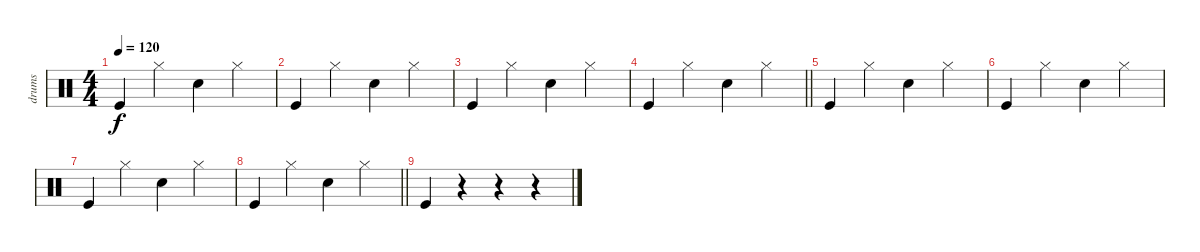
\track ("drums" "drums") {instrument percussion}
\staff {score}
\articulation defaults
\ts (4 4)
\tempo 120
\clef neutral
\ks c "Kick (hit)".4{dy f} "Hi-Hat (closed)".4 "Snare (hit) 2".4 "Hi-Hat (closed)".4
|
"Kick (hit)".4 "Hi-Hat (closed)".4 "Snare (hit) 2".4 "Hi-Hat (closed)".4 |
"Kick (hit)".4 "Hi-Hat (closed)".4 "Snare (hit) 2".4 "Hi-Hat (closed)".4 |
\barLineRight lightlight "Kick (hit)".4 "Hi-Hat (closed)".4 "Snare (hit) 2".4 "Hi-Hat (closed)".4
|
"Kick (hit)".4 "Hi-Hat (closed)".4 "Snare (hit) 2".4 "Hi-Hat (closed)".4 |
"Kick (hit)".4 "Hi-Hat (closed)".4 "Snare (hit) 2".4 "Hi-Hat (closed)".4 |
"Kick (hit)".4 "Hi-Hat (closed)".4 "Snare (hit) 2".4 "Hi-Hat (closed)".4 |
\barLineRight lightlight "Kick (hit)".4 "Hi-Hat (closed)".4 "Snare (hit) 2".4 "Hi-Hat (closed)".4
|
"Kick (hit)".4 r.4 r.4 r.4
